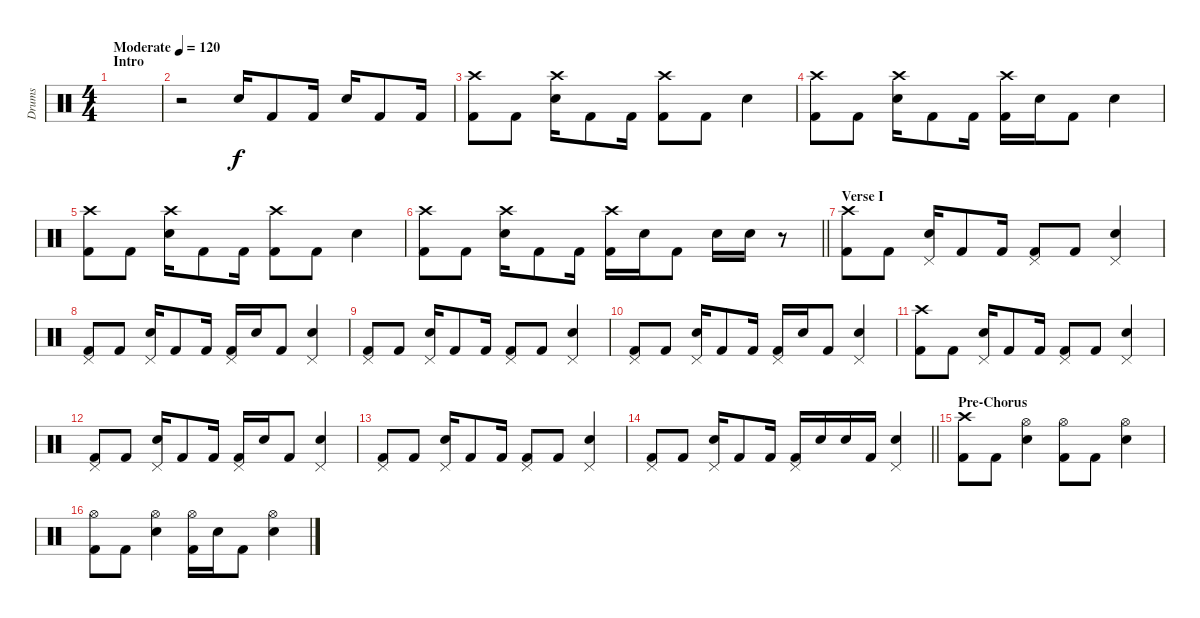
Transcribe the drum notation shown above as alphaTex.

\track ("Drums" "Drums") {instrument percussion}
\staff {score}
\articulation defaults
\ts (4 4)
\section ("" "Intro")
\tempo (120 "Moderate")
\clef neutral
\ks c
|
r.2 "Electric Snare (hit)".16 "Kick (hit) 2".8 "Kick (hit) 2".16 "Electric Snare (hit)".16 "Kick (hit) 2".8 "Kick (hit) 2".16 |
("Crash high (hit)" "Kick (hit) 2").8 "Kick (hit) 2".8 ("Crash high (hit)" "Electric Snare (hit)").16 "Kick (hit) 2".8 "Kick (hit) 2".16 ("Crash high (hit)" "Kick (hit) 2").8 "Kick (hit) 2".8 "Electric Snare (hit)".4 |
("Crash high (hit)" "Kick (hit) 2").8 "Kick (hit) 2".8 ("Crash high (hit)" "Electric Snare (hit)").16 "Kick (hit) 2".8 "Kick (hit) 2".16 ("Crash high (hit)" "Kick (hit) 2").16 "Electric Snare (hit)".16 "Kick (hit) 2".8 "Electric Snare (hit)".4 |
("Crash high (hit)" "Kick (hit) 2").8 "Kick (hit) 2".8 ("Crash high (hit)" "Electric Snare (hit)").16 "Kick (hit) 2".8 "Kick (hit) 2".16 ("Crash high (hit)" "Kick (hit) 2").8 "Kick (hit) 2".8 "Electric Snare (hit)".4 |
\barLineRight lightlight
("Crash high (hit)" "Kick (hit) 2").8 "Kick (hit) 2".8 ("Crash high (hit)" "Electric Snare (hit)").16 "Kick (hit) 2".8 "Kick (hit) 2".16 ("Crash high (hit)" "Kick (hit) 2").16 "Electric Snare (hit)".16 "Kick (hit) 2".8 "Electric Snare (hit)".16 "Electric Snare (hit)".16 r.8 |
\section ("" "Verse I")
("Crash high (hit)" "Kick (hit) 2").8 "Kick (hit) 2".8 ("Pedal Hi-Hat (hit)" "Electric Snare (hit)").16 "Kick (hit) 2".8 "Kick (hit) 2".16 ("Pedal Hi-Hat (hit)" "Kick (hit) 2").8 "Kick (hit) 2".8 ("Pedal Hi-Hat (hit)" "Electric Snare (hit)").4 |
("Pedal Hi-Hat (hit)" "Kick (hit) 2").8 "Kick (hit) 2".8 ("Pedal Hi-Hat (hit)" "Electric Snare (hit)").16 "Kick (hit) 2".8 "Kick (hit) 2".16 ("Pedal Hi-Hat (hit)" "Kick (hit) 2").16 "Electric Snare (hit)".16 "Kick (hit) 2".8 ("Pedal Hi-Hat (hit)" "Electric Snare (hit)").4 |
("Pedal Hi-Hat (hit)" "Kick (hit) 2").8 "Kick (hit) 2".8 ("Pedal Hi-Hat (hit)" "Electric Snare (hit)").16 "Kick (hit) 2".8 "Kick (hit) 2".16 ("Pedal Hi-Hat (hit)" "Kick (hit) 2").8 "Kick (hit) 2".8 ("Pedal Hi-Hat (hit)" "Electric Snare (hit)").4 |
("Pedal Hi-Hat (hit)" "Kick (hit) 2").8 "Kick (hit) 2".8 ("Pedal Hi-Hat (hit)" "Electric Snare (hit)").16 "Kick (hit) 2".8 "Kick (hit) 2".16 ("Pedal Hi-Hat (hit)" "Kick (hit) 2").16 "Electric Snare (hit)".16 "Kick (hit) 2".8 ("Pedal Hi-Hat (hit)" "Electric Snare (hit)").4 |
("Crash high (hit)" "Kick (hit) 2").8 "Kick (hit) 2".8 ("Pedal Hi-Hat (hit)" "Electric Snare (hit)").16 "Kick (hit) 2".8 "Kick (hit) 2".16 ("Pedal Hi-Hat (hit)" "Kick (hit) 2").8 "Kick (hit) 2".8 ("Pedal Hi-Hat (hit)" "Electric Snare (hit)").4 |
("Pedal Hi-Hat (hit)" "Kick (hit) 2").8 "Kick (hit) 2".8 ("Pedal Hi-Hat (hit)" "Electric Snare (hit)").16 "Kick (hit) 2".8 "Kick (hit) 2".16 ("Pedal Hi-Hat (hit)" "Kick (hit) 2").16 "Electric Snare (hit)".16 "Kick (hit) 2".8 ("Pedal Hi-Hat (hit)" "Electric Snare (hit)").4 |
("Pedal Hi-Hat (hit)" "Kick (hit) 2").8 "Kick (hit) 2".8 ("Pedal Hi-Hat (hit)" "Electric Snare (hit)").16 "Kick (hit) 2".8 "Kick (hit) 2".16 ("Pedal Hi-Hat (hit)" "Kick (hit) 2").8 "Kick (hit) 2".8 ("Pedal Hi-Hat (hit)" "Electric Snare (hit)").4 |
\barLineRight lightlight
("Pedal Hi-Hat (hit)" "Kick (hit) 2").8 "Kick (hit) 2".8 ("Pedal Hi-Hat (hit)" "Electric Snare (hit)").16 "Kick (hit) 2".8 "Kick (hit) 2".16 ("Pedal Hi-Hat (hit)" "Kick (hit) 2").16 "Electric Snare (hit)".16 "Electric Snare (hit)".16 "Kick (hit) 2".16 ("Pedal Hi-Hat (hit)" "Electric Snare (hit)").4 |
\section ("" "Pre-Chorus")
("Crash high (hit)" "Kick (hit) 2").8 "Kick (hit) 2".8 ("Hi-Hat (open)" "Electric Snare (hit)").4 ("Hi-Hat (open)" "Kick (hit) 2").8 "Kick (hit) 2".8 ("Hi-Hat (open)" "Electric Snare (hit)").4 |
("Hi-Hat (open)" "Kick (hit) 2").8 "Kick (hit) 2".8 ("Hi-Hat (open)" "Electric Snare (hit)").4 ("Hi-Hat (open)" "Kick (hit) 2").16 "Electric Snare (hit)".16 "Kick (hit) 2".8 ("Hi-Hat (open)" "Electric Snare (hit)").4
